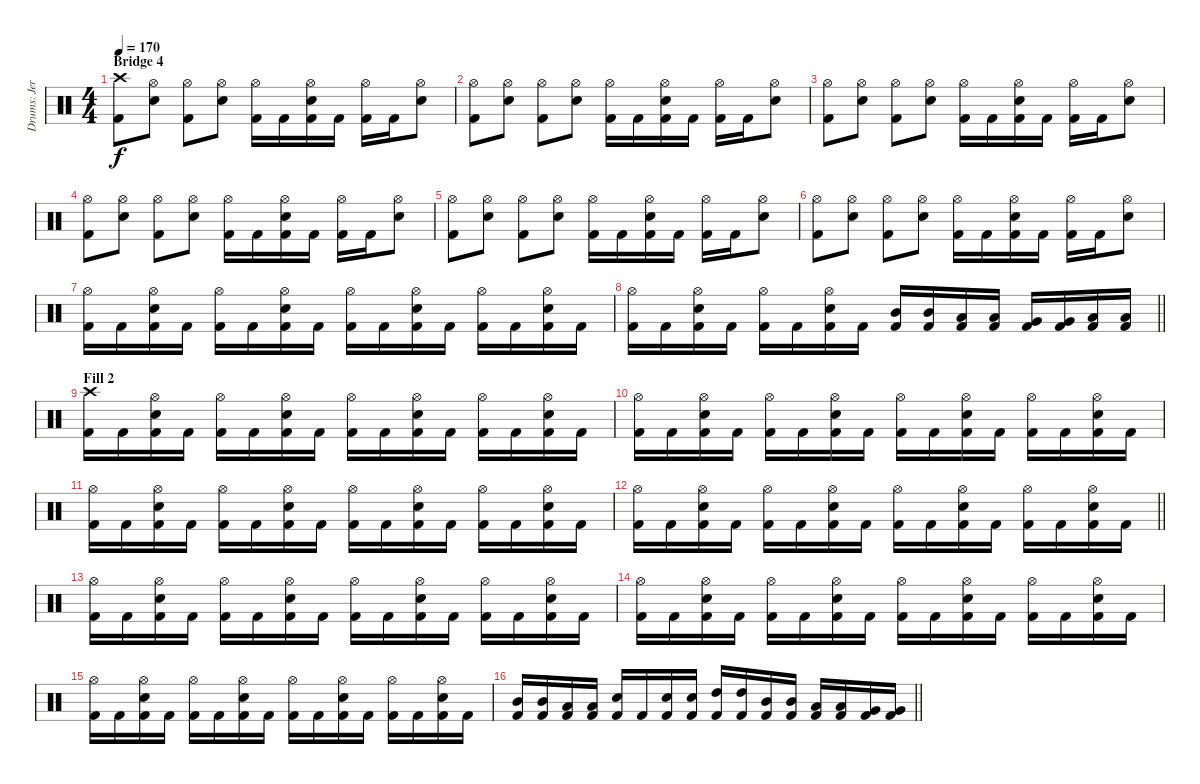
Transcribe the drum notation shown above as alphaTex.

\track ("Drums: Jere Luokkamäki" "Drums: Jer") {instrument percussion}
\staff {score}
\articulation defaults
\ts (4 4)
\section ("" "Bridge 4")
\tempo 170
\clef neutral
\ks aminor
("Crash high (hit)" "Kick (hit) 2").8{dy f} ("Hi-Hat (open)" "Electric Snare (hit)").8 ("Hi-Hat (open)" "Kick (hit) 2").8 ("Hi-Hat (open)" "Electric Snare (hit)").8 ("Hi-Hat (open)" "Kick (hit) 2").16 "Kick (hit) 2".16 ("Hi-Hat (open)" "Electric Snare (hit)" "Kick (hit) 2").16 "Kick (hit) 2".16 ("Hi-Hat (open)" "Kick (hit) 2").16 "Kick (hit) 2".16 ("Hi-Hat (open)" "Electric Snare (hit)").8 |
("Hi-Hat (open)" "Kick (hit) 2").8 ("Hi-Hat (open)" "Electric Snare (hit)").8 ("Hi-Hat (open)" "Kick (hit) 2").8 ("Hi-Hat (open)" "Electric Snare (hit)").8 ("Hi-Hat (open)" "Kick (hit) 2").16 "Kick (hit) 2".16 ("Hi-Hat (open)" "Electric Snare (hit)" "Kick (hit) 2").16 "Kick (hit) 2".16 ("Hi-Hat (open)" "Kick (hit) 2").16 "Kick (hit) 2".16 ("Hi-Hat (open)" "Electric Snare (hit)").8 |
("Hi-Hat (open)" "Kick (hit) 2").8 ("Hi-Hat (open)" "Electric Snare (hit)").8 ("Hi-Hat (open)" "Kick (hit) 2").8 ("Hi-Hat (open)" "Electric Snare (hit)").8 ("Hi-Hat (open)" "Kick (hit) 2").16 "Kick (hit) 2".16 ("Hi-Hat (open)" "Electric Snare (hit)" "Kick (hit) 2").16 "Kick (hit) 2".16 ("Hi-Hat (open)" "Kick (hit) 2").16 "Kick (hit) 2".16 ("Hi-Hat (open)" "Electric Snare (hit)").8 |
("Hi-Hat (open)" "Kick (hit) 2").8 ("Hi-Hat (open)" "Electric Snare (hit)").8 ("Hi-Hat (open)" "Kick (hit) 2").8 ("Hi-Hat (open)" "Electric Snare (hit)").8 ("Hi-Hat (open)" "Kick (hit) 2").16 "Kick (hit) 2".16 ("Hi-Hat (open)" "Electric Snare (hit)" "Kick (hit) 2").16 "Kick (hit) 2".16 ("Hi-Hat (open)" "Kick (hit) 2").16 "Kick (hit) 2".16 ("Hi-Hat (open)" "Electric Snare (hit)").8 |
("Hi-Hat (open)" "Kick (hit) 2").8 ("Hi-Hat (open)" "Electric Snare (hit)").8 ("Hi-Hat (open)" "Kick (hit) 2").8 ("Hi-Hat (open)" "Electric Snare (hit)").8 ("Hi-Hat (open)" "Kick (hit) 2").16 "Kick (hit) 2".16 ("Hi-Hat (open)" "Electric Snare (hit)" "Kick (hit) 2").16 "Kick (hit) 2".16 ("Hi-Hat (open)" "Kick (hit) 2").16 "Kick (hit) 2".16 ("Hi-Hat (open)" "Electric Snare (hit)").8 |
("Hi-Hat (open)" "Kick (hit) 2").8 ("Hi-Hat (open)" "Electric Snare (hit)").8 ("Hi-Hat (open)" "Kick (hit) 2").8 ("Hi-Hat (open)" "Electric Snare (hit)").8 ("Hi-Hat (open)" "Kick (hit) 2").16 "Kick (hit) 2".16 ("Hi-Hat (open)" "Electric Snare (hit)" "Kick (hit) 2").16 "Kick (hit) 2".16 ("Hi-Hat (open)" "Kick (hit) 2").16 "Kick (hit) 2".16 ("Hi-Hat (open)" "Electric Snare (hit)").8 |
("Hi-Hat (open)" "Kick (hit) 2").16 "Kick (hit) 2".16 ("Hi-Hat (open)" "Electric Snare (hit)" "Kick (hit) 2").16 "Kick (hit) 2".16 ("Hi-Hat (open)" "Kick (hit) 2").16 "Kick (hit) 2".16 ("Hi-Hat (open)" "Electric Snare (hit)" "Kick (hit) 2").16 "Kick (hit) 2".16 ("Hi-Hat (open)" "Kick (hit) 2").16 "Kick (hit) 2".16 ("Hi-Hat (open)" "Electric Snare (hit)" "Kick (hit) 2").16 "Kick (hit) 2".16 ("Hi-Hat (open)" "Kick (hit) 2").16 "Kick (hit) 2".16 ("Hi-Hat (open)" "Electric Snare (hit)" "Kick (hit) 2").16 "Kick (hit) 2".16 |
\barLineRight lightlight
("Hi-Hat (open)" "Kick (hit) 2").16 "Kick (hit) 2".16 ("Hi-Hat (open)" "Electric Snare (hit)" "Kick (hit) 2").16 "Kick (hit) 2".16 ("Hi-Hat (open)" "Kick (hit) 2").16 "Kick (hit) 2".16 ("Hi-Hat (open)" "Electric Snare (hit)" "Kick (hit) 2").16 "Kick (hit) 2".16 ("Mid Tom (hit)" "Kick (hit) 2").16 ("Mid Tom (hit)" "Kick (hit) 2").16 ("Low Tom (hit)" "Kick (hit) 2").16 ("Low Tom (hit)" "Kick (hit) 2").16 ("Very Low Tom (hit)" "Kick (hit) 2").16 ("Very Low Tom (hit)" "Kick (hit) 2").16 ("Low Tom (hit)" "Kick (hit) 2").16 ("Low Tom (hit)" "Kick (hit) 2").16 |
\section ("" "Fill 2")
("Crash high (hit)" "Kick (hit) 2").16 "Kick (hit) 2".16 ("Hi-Hat (open)" "Electric Snare (hit)" "Kick (hit) 2").16 "Kick (hit) 2".16 ("Hi-Hat (open)" "Kick (hit) 2").16 "Kick (hit) 2".16 ("Hi-Hat (open)" "Electric Snare (hit)" "Kick (hit) 2").16 "Kick (hit) 2".16 ("Hi-Hat (open)" "Kick (hit) 2").16 "Kick (hit) 2".16 ("Hi-Hat (open)" "Electric Snare (hit)" "Kick (hit) 2").16 "Kick (hit) 2".16 ("Hi-Hat (open)" "Kick (hit) 2").16 "Kick (hit) 2".16 ("Hi-Hat (open)" "Electric Snare (hit)" "Kick (hit) 2").16 "Kick (hit) 2".16 |
("Hi-Hat (open)" "Kick (hit) 2").16 "Kick (hit) 2".16 ("Hi-Hat (open)" "Electric Snare (hit)" "Kick (hit) 2").16 "Kick (hit) 2".16 ("Hi-Hat (open)" "Kick (hit) 2").16 "Kick (hit) 2".16 ("Hi-Hat (open)" "Electric Snare (hit)" "Kick (hit) 2").16 "Kick (hit) 2".16 ("Hi-Hat (open)" "Kick (hit) 2").16 "Kick (hit) 2".16 ("Hi-Hat (open)" "Electric Snare (hit)" "Kick (hit) 2").16 "Kick (hit) 2".16 ("Hi-Hat (open)" "Kick (hit) 2").16 "Kick (hit) 2".16 ("Hi-Hat (open)" "Electric Snare (hit)" "Kick (hit) 2").16 "Kick (hit) 2".16 |
("Hi-Hat (open)" "Kick (hit) 2").16 "Kick (hit) 2".16 ("Hi-Hat (open)" "Electric Snare (hit)" "Kick (hit) 2").16 "Kick (hit) 2".16 ("Hi-Hat (open)" "Kick (hit) 2").16 "Kick (hit) 2".16 ("Hi-Hat (open)" "Electric Snare (hit)" "Kick (hit) 2").16 "Kick (hit) 2".16 ("Hi-Hat (open)" "Kick (hit) 2").16 "Kick (hit) 2".16 ("Hi-Hat (open)" "Electric Snare (hit)" "Kick (hit) 2").16 "Kick (hit) 2".16 ("Hi-Hat (open)" "Kick (hit) 2").16 "Kick (hit) 2".16 ("Hi-Hat (open)" "Electric Snare (hit)" "Kick (hit) 2").16 "Kick (hit) 2".16 |
\barLineRight lightlight
("Hi-Hat (open)" "Kick (hit) 2").16 "Kick (hit) 2".16 ("Hi-Hat (open)" "Electric Snare (hit)" "Kick (hit) 2").16 "Kick (hit) 2".16 ("Hi-Hat (open)" "Kick (hit) 2").16 "Kick (hit) 2".16 ("Hi-Hat (open)" "Electric Snare (hit)" "Kick (hit) 2").16 "Kick (hit) 2".16 ("Hi-Hat (open)" "Kick (hit) 2").16 "Kick (hit) 2".16 ("Hi-Hat (open)" "Electric Snare (hit)" "Kick (hit) 2").16 "Kick (hit) 2".16 ("Hi-Hat (open)" "Kick (hit) 2").16 "Kick (hit) 2".16 ("Hi-Hat (open)" "Electric Snare (hit)" "Kick (hit) 2").16 "Kick (hit) 2".16 |
("Hi-Hat (open)" "Kick (hit) 2").16 "Kick (hit) 2".16 ("Hi-Hat (open)" "Electric Snare (hit)" "Kick (hit) 2").16 "Kick (hit) 2".16 ("Hi-Hat (open)" "Kick (hit) 2").16 "Kick (hit) 2".16 ("Hi-Hat (open)" "Electric Snare (hit)" "Kick (hit) 2").16 "Kick (hit) 2".16 ("Hi-Hat (open)" "Kick (hit) 2").16 "Kick (hit) 2".16 ("Hi-Hat (open)" "Electric Snare (hit)" "Kick (hit) 2").16 "Kick (hit) 2".16 ("Hi-Hat (open)" "Kick (hit) 2").16 "Kick (hit) 2".16 ("Hi-Hat (open)" "Electric Snare (hit)" "Kick (hit) 2").16 "Kick (hit) 2".16 |
("Hi-Hat (open)" "Kick (hit) 2").16 "Kick (hit) 2".16 ("Hi-Hat (open)" "Electric Snare (hit)" "Kick (hit) 2").16 "Kick (hit) 2".16 ("Hi-Hat (open)" "Kick (hit) 2").16 "Kick (hit) 2".16 ("Hi-Hat (open)" "Electric Snare (hit)" "Kick (hit) 2").16 "Kick (hit) 2".16 ("Hi-Hat (open)" "Kick (hit) 2").16 "Kick (hit) 2".16 ("Hi-Hat (open)" "Electric Snare (hit)" "Kick (hit) 2").16 "Kick (hit) 2".16 ("Hi-Hat (open)" "Kick (hit) 2").16 "Kick (hit) 2".16 ("Hi-Hat (open)" "Electric Snare (hit)" "Kick (hit) 2").16 "Kick (hit) 2".16 |
("Hi-Hat (open)" "Kick (hit) 2").16 "Kick (hit) 2".16 ("Hi-Hat (open)" "Electric Snare (hit)" "Kick (hit) 2").16 "Kick (hit) 2".16 ("Hi-Hat (open)" "Kick (hit) 2").16 "Kick (hit) 2".16 ("Hi-Hat (open)" "Electric Snare (hit)" "Kick (hit) 2").16 "Kick (hit) 2".16 ("Hi-Hat (open)" "Kick (hit) 2").16 "Kick (hit) 2".16 ("Hi-Hat (open)" "Electric Snare (hit)" "Kick (hit) 2").16 "Kick (hit) 2".16 ("Hi-Hat (open)" "Kick (hit) 2").16 "Kick (hit) 2".16 ("Hi-Hat (open)" "Electric Snare (hit)" "Kick (hit) 2").16 "Kick (hit) 2".16 |
\barLineRight lightlight
("Mid Tom (hit)" "Kick (hit) 2").16 ("Mid Tom (hit)" "Kick (hit) 2").16 ("Low Tom (hit)" "Kick (hit) 2").16 ("Low Tom (hit)" "Kick (hit) 2").16 ("Electric Snare (hit)" "Kick (hit) 2").16 "Kick (hit) 2".16 ("Electric Snare (hit)" "Kick (hit) 2").16 ("Electric Snare (hit)" "Kick (hit) 2").16 ("High Tom (hit)" "Kick (hit) 2").16 ("High Tom (hit)" "Kick (hit) 2").16 ("Mid Tom (hit)" "Kick (hit) 2").16 ("Mid Tom (hit)" "Kick (hit) 2").16 ("Low Tom (hit)" "Kick (hit) 2").16 ("Low Tom (hit)" "Kick (hit) 2").16 ("Very Low Tom (hit)" "Kick (hit) 2").16 ("Very Low Tom (hit)" "Kick (hit) 2").16
